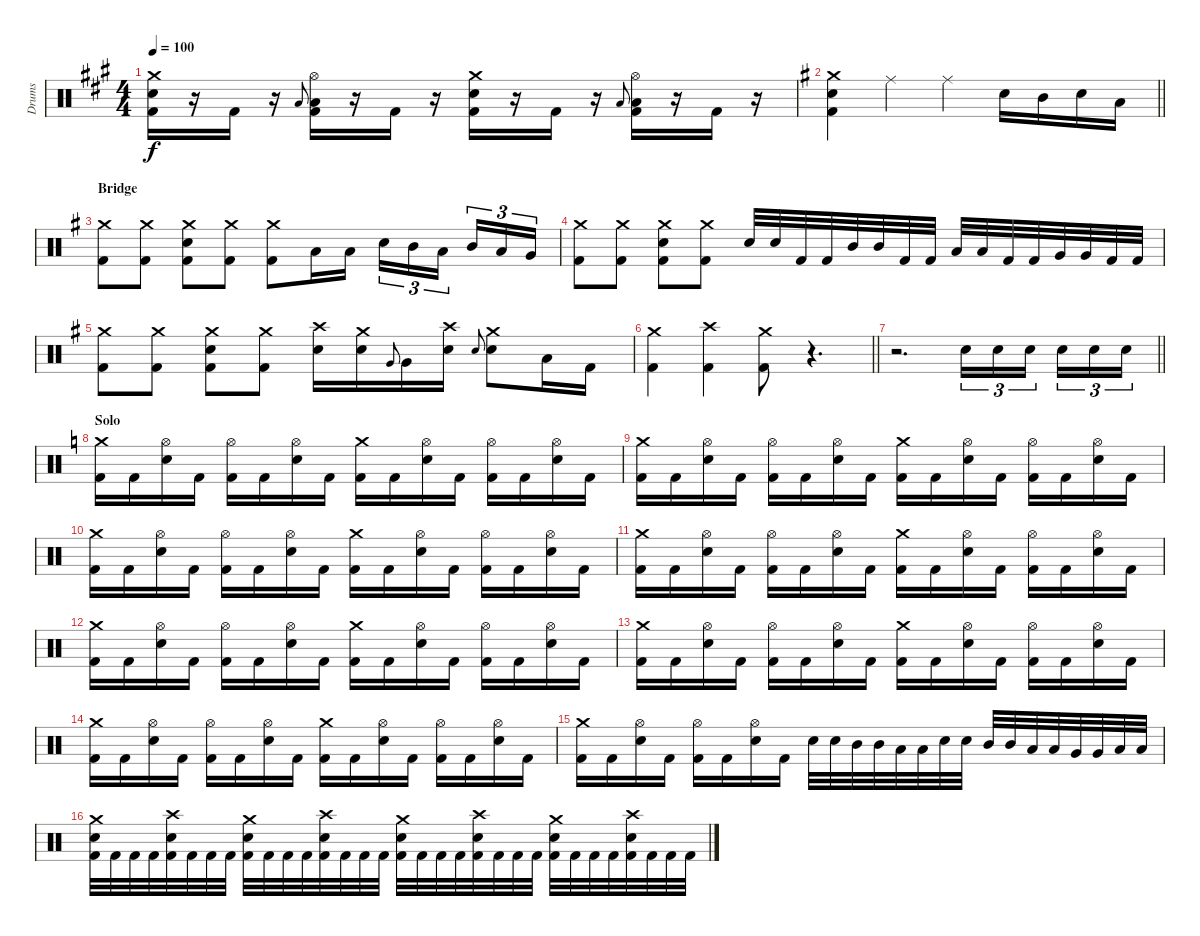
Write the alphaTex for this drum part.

\track ("Drums" "Drums") {instrument percussion}
\staff {score}
\articulation defaults
\ts (4 4)
\tempo 100
\clef neutral
\ks a
("Crash medium (hit)" "Snare (hit) 2" "Kick (hit) 2").16{dy f} r.16 "Kick (hit) 2".16 r.16 "Low Floor Tom (hit)".8{gr onbeat} ("Hi-Hat (open)" "Low Floor Tom (hit)" "Kick (hit) 2").16 r.16 "Kick (hit) 2".16 r.16 ("Crash medium (hit)" "Snare (hit) 2" "Kick (hit) 2").16 r.16 "Kick (hit) 2".16 r.16 "Low Floor Tom (hit)".8{gr onbeat} ("Hi-Hat (open)" "Low Floor Tom (hit)" "Kick (hit) 2").16 r.16 "Kick (hit) 2".16 r.16 |
\barLineRight lightlight
\ks g
("Crash medium (hit)" "Snare (hit) 2" "Kick (hit) 2").4 "Ride (middle)".4 "Ride (middle)".4 "Snare (hit) 2".16 "Mid Tom (hit)".16 "Snare (hit) 2".16 "Low Tom (hit)".16 |
\section ("" "Bridge")
("Crash medium (hit)" "Kick (hit) 2").8 ("Crash medium (hit)" "Kick (hit) 2").8 ("Crash medium (hit)" "Snare (hit) 2" "Kick (hit) 2").8 ("Crash medium (hit)" "Kick (hit) 2").8 ("Crash medium (hit)" "Kick (hit) 2").8 "Low Tom (hit)".16 "Low Tom (hit)".16 "Snare (hit) 2".16{tu (3 2)} "Mid Tom (hit)".16{tu (3 2)} "Low Tom (hit)".16{tu (3 2) beam splitsecondary} "Mid Tom (hit)".16{tu (3 2)} "Low Tom (hit)".16{tu (3 2)} "Very Low Tom (hit)".16{tu (3 2)} |
("Crash medium (hit)" "Kick (hit) 2").8 ("Crash medium (hit)" "Kick (hit) 2").8 ("Crash medium (hit)" "Snare (hit) 2" "Kick (hit) 2").8 ("Crash medium (hit)" "Kick (hit) 2").8 "Snare (hit) 2".32 "Snare (hit) 2".32 "Kick (hit) 2".32 "Kick (hit) 2".32 "Mid Tom (hit)".32 "Mid Tom (hit)".32 "Kick (hit) 2".32 "Kick (hit) 2".32 "Low Tom (hit)".32 "Low Tom (hit)".32 "Kick (hit) 2".32 "Kick (hit) 2".32 "Very Low Tom (hit)".32 "Very Low Tom (hit)".32 "Kick (hit) 2".32 "Kick (hit) 2".32 |
("Crash medium (hit)" "Kick (hit) 2").8 ("Crash medium (hit)" "Kick (hit) 2").8 ("Crash medium (hit)" "Snare (hit) 2" "Kick (hit) 2").8 ("Crash medium (hit)" "Kick (hit) 2").8 ("Crash high (hit)" "Snare (hit) 2").16 ("Crash medium (hit)" "Snare (hit) 2").16 "Very Low Tom (hit)".8{gr onbeat} "Very Low Tom (hit)".16 ("Crash high (hit)" "Snare (hit) 2").16 "Snare (hit) 2".8{gr onbeat} ("Crash medium (hit)" "Snare (hit) 2").8 "Low Tom (hit)".16 "Kick (hit) 2".16 |
\barLineRight lightlight
("Crash medium (hit)" "Kick (hit) 2").4 ("Crash high (hit)" "Kick (hit) 2").4 ("Crash medium (hit)" "Kick (hit) 2").8 r.4{d} |
\barLineRight lightlight
r.2{d} "Snare (hit) 2".16{tu (3 2)} "Snare (hit) 2".16{tu (3 2)} "Snare (hit) 2".16{tu (3 2) beam splitsecondary} "Snare (hit) 2".16{tu (3 2)} "Snare (hit) 2".16{tu (3 2)} "Snare (hit) 2".16{tu (3 2)} |
\section ("" "Solo")
\ks c
("Crash medium (hit)" "Kick (hit) 2").16 "Kick (hit) 2".16 ("Hi-Hat (open)" "Snare (hit) 2").16 "Kick (hit) 2".16 ("Hi-Hat (open)" "Kick (hit) 2").16 "Kick (hit) 2".16 ("Hi-Hat (open)" "Snare (hit) 2").16 "Kick (hit) 2".16 ("Crash medium (hit)" "Kick (hit) 2").16 "Kick (hit) 2".16 ("Hi-Hat (open)" "Snare (hit) 2").16 "Kick (hit) 2".16 ("Hi-Hat (open)" "Kick (hit) 2").16 "Kick (hit) 2".16 ("Hi-Hat (open)" "Snare (hit) 2").16 "Kick (hit) 2".16 |
("Crash medium (hit)" "Kick (hit) 2").16 "Kick (hit) 2".16 ("Hi-Hat (open)" "Snare (hit) 2").16 "Kick (hit) 2".16 ("Hi-Hat (open)" "Kick (hit) 2").16 "Kick (hit) 2".16 ("Hi-Hat (open)" "Snare (hit) 2").16 "Kick (hit) 2".16 ("Crash medium (hit)" "Kick (hit) 2").16 "Kick (hit) 2".16 ("Hi-Hat (open)" "Snare (hit) 2").16 "Kick (hit) 2".16 ("Hi-Hat (open)" "Kick (hit) 2").16 "Kick (hit) 2".16 ("Hi-Hat (open)" "Snare (hit) 2").16 "Kick (hit) 2".16 |
("Crash medium (hit)" "Kick (hit) 2").16 "Kick (hit) 2".16 ("Hi-Hat (open)" "Snare (hit) 2").16 "Kick (hit) 2".16 ("Hi-Hat (open)" "Kick (hit) 2").16 "Kick (hit) 2".16 ("Hi-Hat (open)" "Snare (hit) 2").16 "Kick (hit) 2".16 ("Crash medium (hit)" "Kick (hit) 2").16 "Kick (hit) 2".16 ("Hi-Hat (open)" "Snare (hit) 2").16 "Kick (hit) 2".16 ("Hi-Hat (open)" "Kick (hit) 2").16 "Kick (hit) 2".16 ("Hi-Hat (open)" "Snare (hit) 2").16 "Kick (hit) 2".16 |
("Crash medium (hit)" "Kick (hit) 2").16 "Kick (hit) 2".16 ("Hi-Hat (open)" "Snare (hit) 2").16 "Kick (hit) 2".16 ("Hi-Hat (open)" "Kick (hit) 2").16 "Kick (hit) 2".16 ("Hi-Hat (open)" "Snare (hit) 2").16 "Kick (hit) 2".16 ("Crash medium (hit)" "Kick (hit) 2").16 "Kick (hit) 2".16 ("Hi-Hat (open)" "Snare (hit) 2").16 "Kick (hit) 2".16 ("Hi-Hat (open)" "Kick (hit) 2").16 "Kick (hit) 2".16 ("Hi-Hat (open)" "Snare (hit) 2").16 "Kick (hit) 2".16 |
("Crash medium (hit)" "Kick (hit) 2").16 "Kick (hit) 2".16 ("Hi-Hat (open)" "Snare (hit) 2").16 "Kick (hit) 2".16 ("Hi-Hat (open)" "Kick (hit) 2").16 "Kick (hit) 2".16 ("Hi-Hat (open)" "Snare (hit) 2").16 "Kick (hit) 2".16 ("Crash medium (hit)" "Kick (hit) 2").16 "Kick (hit) 2".16 ("Hi-Hat (open)" "Snare (hit) 2").16 "Kick (hit) 2".16 ("Hi-Hat (open)" "Kick (hit) 2").16 "Kick (hit) 2".16 ("Hi-Hat (open)" "Snare (hit) 2").16 "Kick (hit) 2".16 |
("Crash medium (hit)" "Kick (hit) 2").16 "Kick (hit) 2".16 ("Hi-Hat (open)" "Snare (hit) 2").16 "Kick (hit) 2".16 ("Hi-Hat (open)" "Kick (hit) 2").16 "Kick (hit) 2".16 ("Hi-Hat (open)" "Snare (hit) 2").16 "Kick (hit) 2".16 ("Crash medium (hit)" "Kick (hit) 2").16 "Kick (hit) 2".16 ("Hi-Hat (open)" "Snare (hit) 2").16 "Kick (hit) 2".16 ("Hi-Hat (open)" "Kick (hit) 2").16 "Kick (hit) 2".16 ("Hi-Hat (open)" "Snare (hit) 2").16 "Kick (hit) 2".16 |
("Crash medium (hit)" "Kick (hit) 2").16 "Kick (hit) 2".16 ("Hi-Hat (open)" "Snare (hit) 2").16 "Kick (hit) 2".16 ("Hi-Hat (open)" "Kick (hit) 2").16 "Kick (hit) 2".16 ("Hi-Hat (open)" "Snare (hit) 2").16 "Kick (hit) 2".16 ("Crash medium (hit)" "Kick (hit) 2").16 "Kick (hit) 2".16 ("Hi-Hat (open)" "Snare (hit) 2").16 "Kick (hit) 2".16 ("Hi-Hat (open)" "Kick (hit) 2").16 "Kick (hit) 2".16 ("Hi-Hat (open)" "Snare (hit) 2").16 "Kick (hit) 2".16 |
("Crash medium (hit)" "Kick (hit) 2").16 "Kick (hit) 2".16 ("Hi-Hat (open)" "Snare (hit) 2").16 "Kick (hit) 2".16 ("Hi-Hat (open)" "Kick (hit) 2").16 "Kick (hit) 2".16 ("Hi-Hat (open)" "Snare (hit) 2").16 "Kick (hit) 2".16 "Snare (hit) 2".32 "Snare (hit) 2".32 "Mid Tom (hit)".32 "Mid Tom (hit)".32 "Low Tom (hit)".32 "Low Tom (hit)".32 "Snare (hit) 2".32 "Snare (hit) 2".32 "Mid Tom (hit)".32 "Mid Tom (hit)".32 "Low Tom (hit)".32 "Low Tom (hit)".32 "Very Low Tom (hit)".32 "Very Low Tom (hit)".32 "Low Floor Tom (hit)".32 "Low Floor Tom (hit)".32 |
("Crash medium (hit)" "Snare (hit) 2" "Kick (hit) 2").32 "Kick (hit) 2".32 "Kick (hit) 2".32 "Kick (hit) 2".32 ("Crash high (hit)" "Snare (hit) 2" "Kick (hit) 2").32 "Kick (hit) 2".32 "Kick (hit) 2".32 "Kick (hit) 2".32 ("Crash medium (hit)" "Snare (hit) 2" "Kick (hit) 2").32 "Kick (hit) 2".32 "Kick (hit) 2".32 "Kick (hit) 2".32 ("Crash high (hit)" "Snare (hit) 2" "Kick (hit) 2").32 "Kick (hit) 2".32 "Kick (hit) 2".32 "Kick (hit) 2".32 ("Crash medium (hit)" "Snare (hit) 2" "Kick (hit) 2").32 "Kick (hit) 2".32 "Kick (hit) 2".32 "Kick (hit) 2".32 ("Crash high (hit)" "Snare (hit) 2" "Kick (hit) 2").32 "Kick (hit) 2".32 "Kick (hit) 2".32 "Kick (hit) 2".32 ("Crash medium (hit)" "Snare (hit) 2" "Kick (hit) 2").32 "Kick (hit) 2".32 "Kick (hit) 2".32 "Kick (hit) 2".32 ("Crash high (hit)" "Snare (hit) 2" "Kick (hit) 2").32 "Kick (hit) 2".32 "Kick (hit) 2".32 "Kick (hit) 2".32
